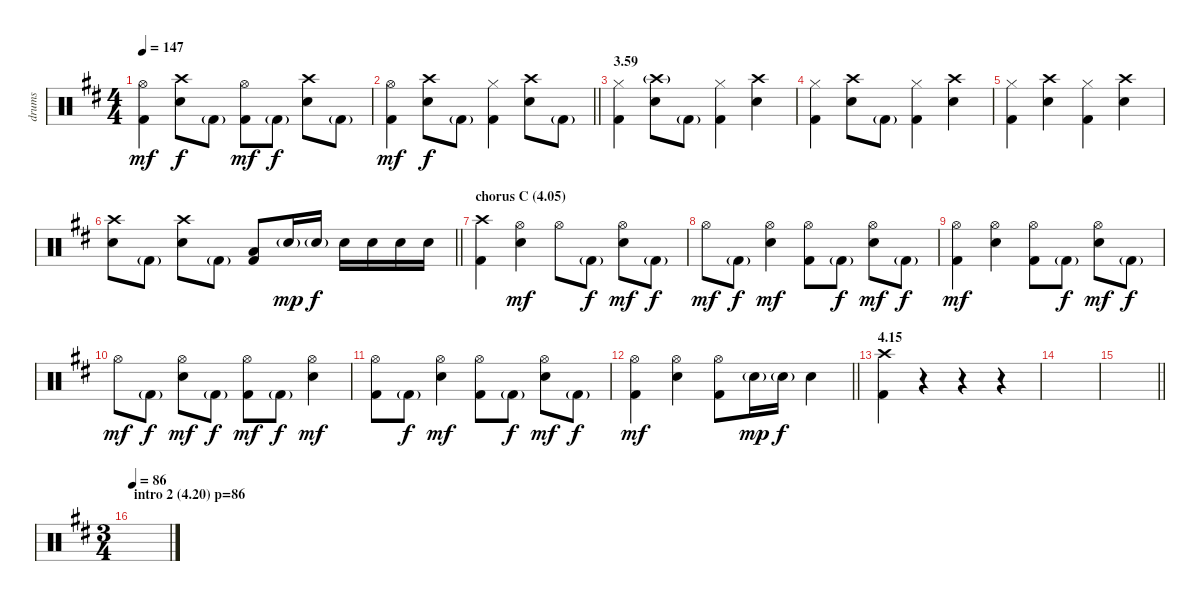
\track ("drums" "drums") {instrument percussion}
\staff {score}
\articulation defaults
\ts (4 4)
\tempo 147
\clef neutral
\ks d
("Hi-Hat (open)" "Kick (hit) 2").4{dy mf} ("Crash high (hit)" "Electric Snare (hit)").8{dy f} "Kick (hit) 2"{g}.8 ("Hi-Hat (open)" "Kick (hit) 2").8{dy mf} "Kick (hit) 2"{g}.8{dy f} ("Crash high (hit)" "Electric Snare (hit)").8 "Kick (hit) 2"{g}.8 |
\barLineRight lightlight
("Hi-Hat (open)" "Kick (hit) 2").4{dy mf} ("Crash high (hit)" "Electric Snare (hit)").8{dy f} "Kick (hit) 2"{g}.8 ("Hi-Hat (closed)" "Kick (hit) 2").4 ("Crash high (hit)" "Electric Snare (hit)").8 "Kick (hit) 2"{g}.8 |
\section ("" "3.59")
("Hi-Hat (closed)" "Kick (hit) 2").4 ("Crash high (hit)"{g} "Electric Snare (hit)").8 "Kick (hit) 2"{g}.8 ("Hi-Hat (closed)" "Kick (hit) 2").4 ("Crash high (hit)" "Electric Snare (hit)").4 |
("Hi-Hat (closed)" "Kick (hit) 2").4 ("Crash high (hit)" "Electric Snare (hit)").8 "Kick (hit) 2"{g}.8 ("Hi-Hat (closed)" "Kick (hit) 2").4 ("Crash high (hit)" "Electric Snare (hit)").4 |
("Hi-Hat (closed)" "Kick (hit) 2").4 ("Crash high (hit)" "Electric Snare (hit)").4 ("Hi-Hat (closed)" "Kick (hit) 2").4 ("Crash high (hit)" "Electric Snare (hit)").4 |
\barLineRight lightlight
("Crash high (hit)" "Electric Snare (hit)").8 "Kick (hit) 2"{g}.8 ("Crash high (hit)" "Electric Snare (hit)").8 "Kick (hit) 2"{g}.8 ("Low Tom (hit)" "Kick (hit) 2").8 "Electric Snare (hit)"{g}.16{dy mp} "Electric Snare (hit)"{g}.16{dy f} "Electric Snare (hit)".16 "Electric Snare (hit)".16 "Electric Snare (hit)".16 "Electric Snare (hit)".16 |
\section ("" "chorus C (4.05)")
("Crash high (hit)" "Kick (hit) 2").4 ("Hi-Hat (open)" "Electric Snare (hit)").4{dy mf} "Hi-Hat (open)".8 "Kick (hit) 2"{g}.8{dy f} ("Hi-Hat (open)" "Electric Snare (hit)").8{dy mf} "Kick (hit) 2"{g}.8{dy f} |
"Hi-Hat (open)".8{dy mf} "Kick (hit) 2"{g}.8{dy f} ("Hi-Hat (open)" "Electric Snare (hit)").4{dy mf} ("Hi-Hat (open)" "Kick (hit) 2").8 "Kick (hit) 2"{g}.8{dy f} ("Hi-Hat (open)" "Electric Snare (hit)").8{dy mf} "Kick (hit) 2"{g}.8{dy f} |
("Hi-Hat (open)" "Kick (hit) 2").4{dy mf} ("Hi-Hat (open)" "Electric Snare (hit)").4 ("Hi-Hat (open)" "Kick (hit) 2").8 "Kick (hit) 2"{g}.8{dy f} ("Hi-Hat (open)" "Electric Snare (hit)").8{dy mf} "Kick (hit) 2"{g}.8{dy f} |
"Hi-Hat (open)".8{dy mf} "Kick (hit) 2"{g}.8{dy f} ("Hi-Hat (open)" "Electric Snare (hit)").8{dy mf} "Kick (hit) 2"{g}.8{dy f} ("Hi-Hat (open)" "Kick (hit) 2").8{dy mf} "Kick (hit) 2"{g}.8{dy f} ("Hi-Hat (open)" "Electric Snare (hit)").4{dy mf} |
("Hi-Hat (open)" "Kick (hit) 2").8 "Kick (hit) 2"{g}.8{dy f} ("Hi-Hat (open)" "Electric Snare (hit)").4{dy mf} ("Hi-Hat (open)" "Kick (hit) 2").8 "Kick (hit) 2"{g}.8{dy f} ("Hi-Hat (open)" "Electric Snare (hit)").8{dy mf} "Kick (hit) 2"{g}.8{dy f} |
\barLineRight lightlight
("Hi-Hat (open)" "Kick (hit) 2").4{dy mf} ("Hi-Hat (open)" "Electric Snare (hit)").4 ("Hi-Hat (open)" "Kick (hit) 2").8 "Electric Snare (hit)"{g}.16{dy mp} "Electric Snare (hit)"{g}.16{dy f} "Electric Snare (hit)".4 |
\section ("" "4.15")
("Crash high (hit)" "Kick (hit) 2").4 r.4 r.4 r.4 |
|
\barLineRight lightlight
|
\ts (3 4)
\section ("" "intro 2 (4.20) p=86")
\tempo 86
